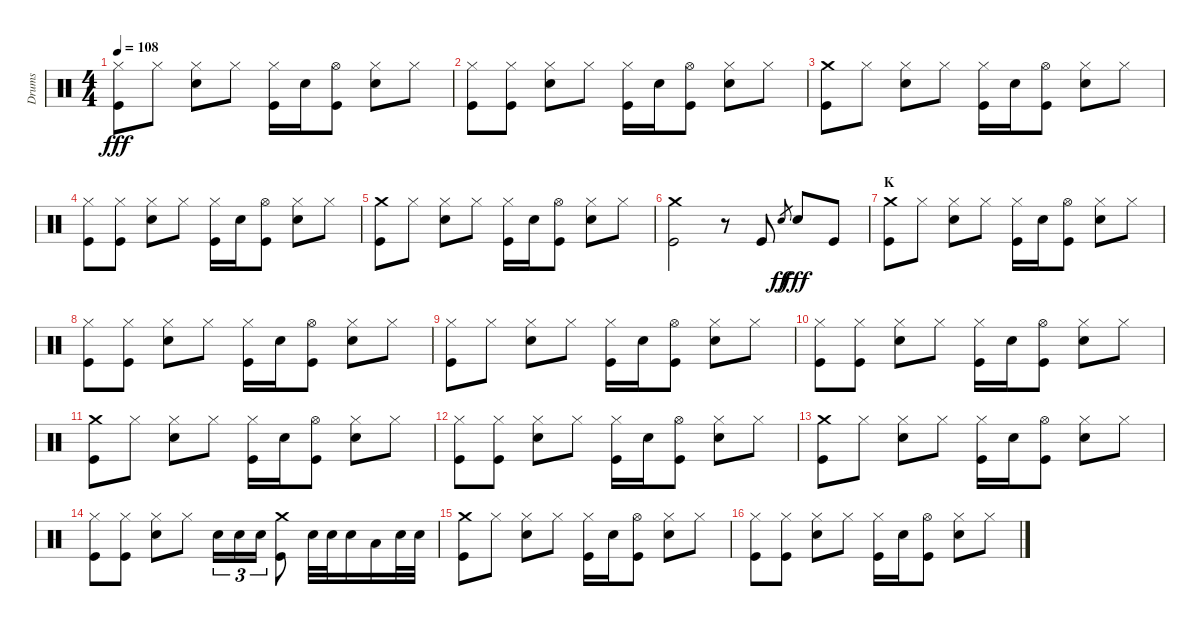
\track ("Drums" "Drums") {instrument percussion}
\staff {score}
\articulation defaults
\ts (4 4)
\tempo 108
\clef neutral
\ks c
("Hi-Hat (closed)" "Kick (hit)").8{dy fff} "Hi-Hat (closed)".8 ("Hi-Hat (closed)" "Snare (hit) 2").8 "Hi-Hat (closed)".8 ("Hi-Hat (closed)" "Kick (hit)").16 "Snare (hit) 2".16 ("Hi-Hat (open)" "Kick (hit)").8 ("Hi-Hat (closed)" "Snare (hit) 2").8 "Hi-Hat (closed)".8 |
("Hi-Hat (closed)" "Kick (hit)").8 ("Hi-Hat (closed)" "Kick (hit)").8 ("Hi-Hat (closed)" "Snare (hit) 2").8 "Hi-Hat (closed)".8 ("Hi-Hat (closed)" "Kick (hit)").16 "Snare (hit) 2".16 ("Hi-Hat (open)" "Kick (hit)").8 ("Hi-Hat (closed)" "Snare (hit) 2").8 "Hi-Hat (closed)".8 |
("Crash medium (hit)" "Kick (hit)").8 "Hi-Hat (closed)".8 ("Hi-Hat (closed)" "Snare (hit) 2").8 "Hi-Hat (closed)".8 ("Hi-Hat (closed)" "Kick (hit)").16 "Snare (hit) 2".16 ("Hi-Hat (open)" "Kick (hit)").8 ("Hi-Hat (closed)" "Snare (hit) 2").8 "Hi-Hat (closed)".8 |
("Hi-Hat (closed)" "Kick (hit)").8 ("Hi-Hat (closed)" "Kick (hit)").8 ("Hi-Hat (closed)" "Snare (hit) 2").8 "Hi-Hat (closed)".8 ("Hi-Hat (closed)" "Kick (hit)").16 "Snare (hit) 2".16 ("Hi-Hat (open)" "Kick (hit)").8 ("Hi-Hat (closed)" "Snare (hit) 2").8 "Hi-Hat (closed)".8 |
("Crash medium (hit)" "Kick (hit)").8 "Hi-Hat (closed)".8 ("Hi-Hat (closed)" "Snare (hit) 2").8 "Hi-Hat (closed)".8 ("Hi-Hat (closed)" "Kick (hit)").16 "Snare (hit) 2".16 ("Hi-Hat (open)" "Kick (hit)").8 ("Hi-Hat (closed)" "Snare (hit) 2").8 "Hi-Hat (closed)".8 |
("Crash medium (hit)" "Kick (hit)").2 r.8 "Kick (hit)".8 "Snare (hit)".8{gr dy ff} "Snare (hit) 2".8{dy fff} "Kick (hit)".8 |
\section ("" "K")
("Crash medium (hit)" "Kick (hit)").8 "Hi-Hat (closed)".8 ("Hi-Hat (closed)" "Snare (hit) 2").8 "Hi-Hat (closed)".8 ("Hi-Hat (closed)" "Kick (hit)").16 "Snare (hit) 2".16 ("Hi-Hat (open)" "Kick (hit)").8 ("Hi-Hat (closed)" "Snare (hit) 2").8 "Hi-Hat (closed)".8 |
("Hi-Hat (closed)" "Kick (hit)").8 ("Hi-Hat (closed)" "Kick (hit)").8 ("Hi-Hat (closed)" "Snare (hit) 2").8 "Hi-Hat (closed)".8 ("Hi-Hat (closed)" "Kick (hit)").16 "Snare (hit) 2".16 ("Hi-Hat (open)" "Kick (hit)").8 ("Hi-Hat (closed)" "Snare (hit) 2").8 "Hi-Hat (closed)".8 |
("Hi-Hat (closed)" "Kick (hit)").8 "Hi-Hat (closed)".8 ("Hi-Hat (closed)" "Snare (hit) 2").8 "Hi-Hat (closed)".8 ("Hi-Hat (closed)" "Kick (hit)").16 "Snare (hit) 2".16 ("Hi-Hat (open)" "Kick (hit)").8 ("Hi-Hat (closed)" "Snare (hit) 2").8 "Hi-Hat (closed)".8 |
("Hi-Hat (closed)" "Kick (hit)").8 ("Hi-Hat (closed)" "Kick (hit)").8 ("Hi-Hat (closed)" "Snare (hit) 2").8 "Hi-Hat (closed)".8 ("Hi-Hat (closed)" "Kick (hit)").16 "Snare (hit) 2".16 ("Hi-Hat (open)" "Kick (hit)").8 ("Hi-Hat (closed)" "Snare (hit) 2").8 "Hi-Hat (closed)".8 |
("Crash medium (hit)" "Kick (hit)").8 "Hi-Hat (closed)".8 ("Hi-Hat (closed)" "Snare (hit) 2").8 "Hi-Hat (closed)".8 ("Hi-Hat (closed)" "Kick (hit)").16 "Snare (hit) 2".16 ("Hi-Hat (open)" "Kick (hit)").8 ("Hi-Hat (closed)" "Snare (hit) 2").8 "Hi-Hat (closed)".8 |
("Hi-Hat (closed)" "Kick (hit)").8 ("Hi-Hat (closed)" "Kick (hit)").8 ("Hi-Hat (closed)" "Snare (hit) 2").8 "Hi-Hat (closed)".8 ("Hi-Hat (closed)" "Kick (hit)").16 "Snare (hit) 2".16 ("Hi-Hat (open)" "Kick (hit)").8 ("Hi-Hat (closed)" "Snare (hit) 2").8 "Hi-Hat (closed)".8 |
("Crash medium (hit)" "Kick (hit)").8 "Hi-Hat (closed)".8 ("Hi-Hat (closed)" "Snare (hit) 2").8 "Hi-Hat (closed)".8 ("Hi-Hat (closed)" "Kick (hit)").16 "Snare (hit) 2".16 ("Hi-Hat (open)" "Kick (hit)").8 ("Hi-Hat (closed)" "Snare (hit) 2").8 "Hi-Hat (closed)".8 |
("Hi-Hat (closed)" "Kick (hit)").8 ("Hi-Hat (closed)" "Kick (hit)").8 ("Hi-Hat (closed)" "Snare (hit) 2").8 "Hi-Hat (closed)".8 "Snare (hit) 2".16{tu (3 2)} "Snare (hit) 2".16{tu (3 2)} "Snare (hit) 2".16{tu (3 2)} ("Crash medium (hit)" "Kick (hit)").8 "Snare (hit) 2".32 "Snare (hit) 2".32 "Snare (hit) 2".16 "Low Tom (hit)".16 "Snare (hit) 2".32 "Snare (hit) 2".32 |
("Crash medium (hit)" "Kick (hit)").8 "Hi-Hat (closed)".8 ("Hi-Hat (closed)" "Snare (hit) 2").8 "Hi-Hat (closed)".8 ("Hi-Hat (closed)" "Kick (hit)").16 "Snare (hit) 2".16 ("Hi-Hat (open)" "Kick (hit)").8 ("Hi-Hat (closed)" "Snare (hit) 2").8 "Hi-Hat (closed)".8 |
("Hi-Hat (closed)" "Kick (hit)").8 ("Hi-Hat (closed)" "Kick (hit)").8 ("Hi-Hat (closed)" "Snare (hit) 2").8 "Hi-Hat (closed)".8 ("Hi-Hat (closed)" "Kick (hit)").16 "Snare (hit) 2".16 ("Hi-Hat (open)" "Kick (hit)").8 ("Hi-Hat (closed)" "Snare (hit) 2").8 "Hi-Hat (closed)".8
